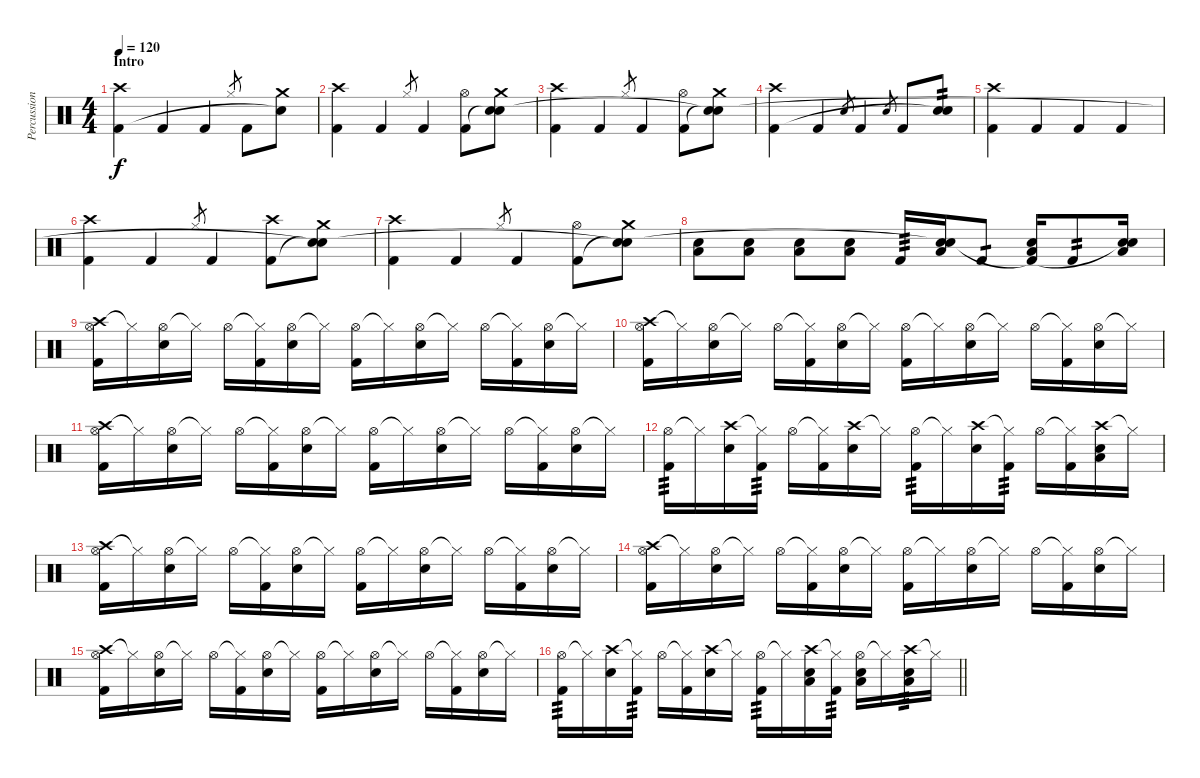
\track ("Percussion" "Percussion") {instrument percussion}
\staff {score}
\articulation defaults
\ts (4 4)
\section ("" "Intro")
\tempo 120
\clef neutral
\ks c
("Crash high (hit)" "Kick (hit) 2").4{dy f} "Kick (hit) 2".4 "Kick (hit) 2".4 "Hi-Hat (closed)".8{gr} "Kick (hit) 2".8 ("Crash medium (hit)" "Snare (hit)"{t}).8 |
("Crash high (hit)" "Kick (hit) 2").4 "Kick (hit) 2".4 "Hi-Hat (closed)".8{gr} "Kick (hit) 2".4 ("Hi-Hat (open)" "Kick (hit) 2").8 ("Crash medium (hit)" "Snare (hit)"{t} "Snare (hit)").8 |
("Crash high (hit)" "Kick (hit) 2").4 "Kick (hit) 2".4 "Hi-Hat (closed)".8{gr} "Kick (hit) 2".4 ("Hi-Hat (open)" "Kick (hit) 2").8 ("Crash medium (hit)" "Snare (hit)"{t} "Snare (hit)"{t}).8 |
("Crash high (hit)" "Kick (hit) 2").4 "Kick (hit) 2".4 "Electric Snare (hit)".8{gr} "Kick (hit) 2".4 "Electric Snare (hit)".8{gr} "Kick (hit) 2".8 ("Electric Snare (hit)" "Snare (hit)"{t}).8{tp 2} |
("Crash high (hit)" "Kick (hit) 2").4 "Kick (hit) 2".4 "Kick (hit) 2".4 "Kick (hit) 2".4 |
("Crash high (hit)" "Kick (hit) 2").4 "Kick (hit) 2".4 "Hi-Hat (closed)".8{gr} "Kick (hit) 2".4 ("Crash high (hit)" "Kick (hit) 2").8 ("Crash medium (hit)" "Snare (hit)"{t} "Snare (hit)"{t}).8 |
("Crash high (hit)" "Kick (hit) 2").4 "Kick (hit) 2".4 "Hi-Hat (closed)".8{gr} "Kick (hit) 2".4 ("Hi-Hat (open)" "Kick (hit) 2").8 ("Crash medium (hit)" "Snare (hit)"{t} "Snare (hit)"{t}).8 |
("Electric Snare (hit)" "Low Tom (hit)").8 ("Electric Snare (hit)" "Low Tom (hit)").8 ("Electric Snare (hit)" "Low Tom (hit)").8 ("Electric Snare (hit)" "Low Tom (hit)").8 "Kick (hit) 2".16{tp 3} ("Electric Snare (hit)" "Low Tom (hit)" "Snare (hit)"{t}).16 "Kick (hit) 2".8{tp 1} ("Electric Snare (hit)" "Low Tom (hit)" "Kick (hit) 2"{t}).16 "Kick (hit) 2".8{tp 2} ("Electric Snare (hit)" "Low Tom (hit)" "Snare (hit)"{t}).16 |
("Crash high (hit)" "Hi-Hat (open)" "Kick (hit) 2").16 "Hi-Hat (closed)"{t}.16 ("Hi-Hat (open)" "Electric Snare (hit)").16 "Hi-Hat (closed)"{t}.16 "Hi-Hat (open)".16 ("Hi-Hat (closed)"{t} "Kick (hit) 2").16 ("Hi-Hat (open)" "Electric Snare (hit)").16 "Hi-Hat (closed)"{t}.16 ("Hi-Hat (open)" "Kick (hit) 2").16 "Hi-Hat (closed)"{t}.16 ("Hi-Hat (open)" "Electric Snare (hit)").16 "Hi-Hat (closed)"{t}.16 "Hi-Hat (open)".16 ("Hi-Hat (closed)"{t} "Kick (hit) 2").16 ("Hi-Hat (open)" "Electric Snare (hit)").16 "Hi-Hat (closed)"{t}.16 |
("Crash high (hit)" "Hi-Hat (open)" "Kick (hit) 2").16 "Hi-Hat (closed)"{t}.16 ("Hi-Hat (open)" "Electric Snare (hit)").16 "Hi-Hat (closed)"{t}.16 "Hi-Hat (open)".16 ("Hi-Hat (closed)"{t} "Kick (hit) 2").16 ("Hi-Hat (open)" "Electric Snare (hit)").16 "Hi-Hat (closed)"{t}.16 ("Hi-Hat (open)" "Kick (hit) 2").16 "Hi-Hat (closed)"{t}.16 ("Hi-Hat (open)" "Electric Snare (hit)").16 "Hi-Hat (closed)"{t}.16 "Hi-Hat (open)".16 ("Hi-Hat (closed)"{t} "Kick (hit) 2").16 ("Hi-Hat (open)" "Electric Snare (hit)").16 "Hi-Hat (closed)"{t}.16 |
("Crash high (hit)" "Hi-Hat (open)" "Kick (hit) 2").16 "Hi-Hat (closed)"{t}.16 ("Hi-Hat (open)" "Electric Snare (hit)").16 "Hi-Hat (closed)"{t}.16 "Hi-Hat (open)".16 ("Hi-Hat (closed)"{t} "Kick (hit) 2").16 ("Hi-Hat (open)" "Electric Snare (hit)").16 "Hi-Hat (closed)"{t}.16 ("Hi-Hat (open)" "Kick (hit) 2").16 "Hi-Hat (closed)"{t}.16 ("Hi-Hat (open)" "Electric Snare (hit)").16 "Hi-Hat (closed)"{t}.16 "Hi-Hat (open)".16 ("Hi-Hat (closed)"{t} "Kick (hit) 2").16 ("Hi-Hat (open)" "Electric Snare (hit)").16 "Hi-Hat (closed)"{t}.16 |
("Hi-Hat (open)" "Kick (hit) 2").16{tp 3} "Hi-Hat (closed)"{t}.16 ("Crash high (hit)" "Electric Snare (hit)").16 ("Hi-Hat (closed)"{t} "Kick (hit) 2").16{tp 3} "Hi-Hat (open)".16 ("Hi-Hat (closed)"{t} "Kick (hit) 2").16 ("Crash high (hit)" "Electric Snare (hit)").16 "Hi-Hat (closed)"{t}.16 ("Hi-Hat (open)" "Kick (hit) 2").16{tp 3} "Hi-Hat (closed)"{t}.16 ("Crash high (hit)" "Electric Snare (hit)").16 ("Hi-Hat (closed)"{t} "Kick (hit) 2").16{tp 3} "Hi-Hat (open)".16 ("Hi-Hat (closed)"{t} "Kick (hit) 2").16 ("Crash high (hit)" "Electric Snare (hit)" "Low Tom (hit)").16 "Hi-Hat (closed)"{t}.16 |
("Crash high (hit)" "Hi-Hat (open)" "Kick (hit) 2").16 "Hi-Hat (closed)"{t}.16 ("Hi-Hat (open)" "Electric Snare (hit)").16 "Hi-Hat (closed)"{t}.16 "Hi-Hat (open)".16 ("Hi-Hat (closed)"{t} "Kick (hit) 2").16 ("Hi-Hat (open)" "Electric Snare (hit)").16 "Hi-Hat (closed)"{t}.16 ("Hi-Hat (open)" "Kick (hit) 2").16 "Hi-Hat (closed)"{t}.16 ("Hi-Hat (open)" "Electric Snare (hit)").16 "Hi-Hat (closed)"{t}.16 "Hi-Hat (open)".16 ("Hi-Hat (closed)"{t} "Kick (hit) 2").16 ("Hi-Hat (open)" "Electric Snare (hit)").16 "Hi-Hat (closed)"{t}.16 |
("Crash high (hit)" "Hi-Hat (open)" "Kick (hit) 2").16 "Hi-Hat (closed)"{t}.16 ("Hi-Hat (open)" "Electric Snare (hit)").16 "Hi-Hat (closed)"{t}.16 "Hi-Hat (open)".16 ("Hi-Hat (closed)"{t} "Kick (hit) 2").16 ("Hi-Hat (open)" "Electric Snare (hit)").16 "Hi-Hat (closed)"{t}.16 ("Hi-Hat (open)" "Kick (hit) 2").16 "Hi-Hat (closed)"{t}.16 ("Hi-Hat (open)" "Electric Snare (hit)").16 "Hi-Hat (closed)"{t}.16 "Hi-Hat (open)".16 ("Hi-Hat (closed)"{t} "Kick (hit) 2").16 ("Hi-Hat (open)" "Electric Snare (hit)").16 "Hi-Hat (closed)"{t}.16 |
("Crash high (hit)" "Hi-Hat (open)" "Kick (hit) 2").16 "Hi-Hat (closed)"{t}.16 ("Hi-Hat (open)" "Electric Snare (hit)").16 "Hi-Hat (closed)"{t}.16 "Hi-Hat (open)".16 ("Hi-Hat (closed)"{t} "Kick (hit) 2").16 ("Hi-Hat (open)" "Electric Snare (hit)").16 "Hi-Hat (closed)"{t}.16 ("Hi-Hat (open)" "Kick (hit) 2").16 "Hi-Hat (closed)"{t}.16 ("Hi-Hat (open)" "Electric Snare (hit)").16 "Hi-Hat (closed)"{t}.16 "Hi-Hat (open)".16 ("Hi-Hat (closed)"{t} "Kick (hit) 2").16 ("Hi-Hat (open)" "Electric Snare (hit)").16 "Hi-Hat (closed)"{t}.16 |
\barLineRight lightlight
("Hi-Hat (open)" "Kick (hit) 2").16{tp 3} "Hi-Hat (closed)"{t}.16 ("Crash high (hit)" "Electric Snare (hit)").16 ("Hi-Hat (closed)"{t} "Kick (hit) 2").16{tp 3} "Hi-Hat (open)".16 ("Hi-Hat (closed)"{t} "Kick (hit) 2").16 ("Crash high (hit)" "Electric Snare (hit)").16 "Hi-Hat (closed)"{t}.16 ("Hi-Hat (open)" "Kick (hit) 2").16{tp 3} "Hi-Hat (closed)"{t}.16 ("Crash high (hit)" "Electric Snare (hit)" "Low Tom (hit)").16 ("Hi-Hat (closed)"{t} "Kick (hit) 2").16{tp 3} ("Hi-Hat (open)" "Electric Snare (hit)" "Low Tom (hit)").16 "Hi-Hat (closed)"{t}.16 ("Crash high (hit)" "Electric Snare (hit)" "Low Tom (hit)").16{tp 3} "Hi-Hat (closed)"{t}.16
